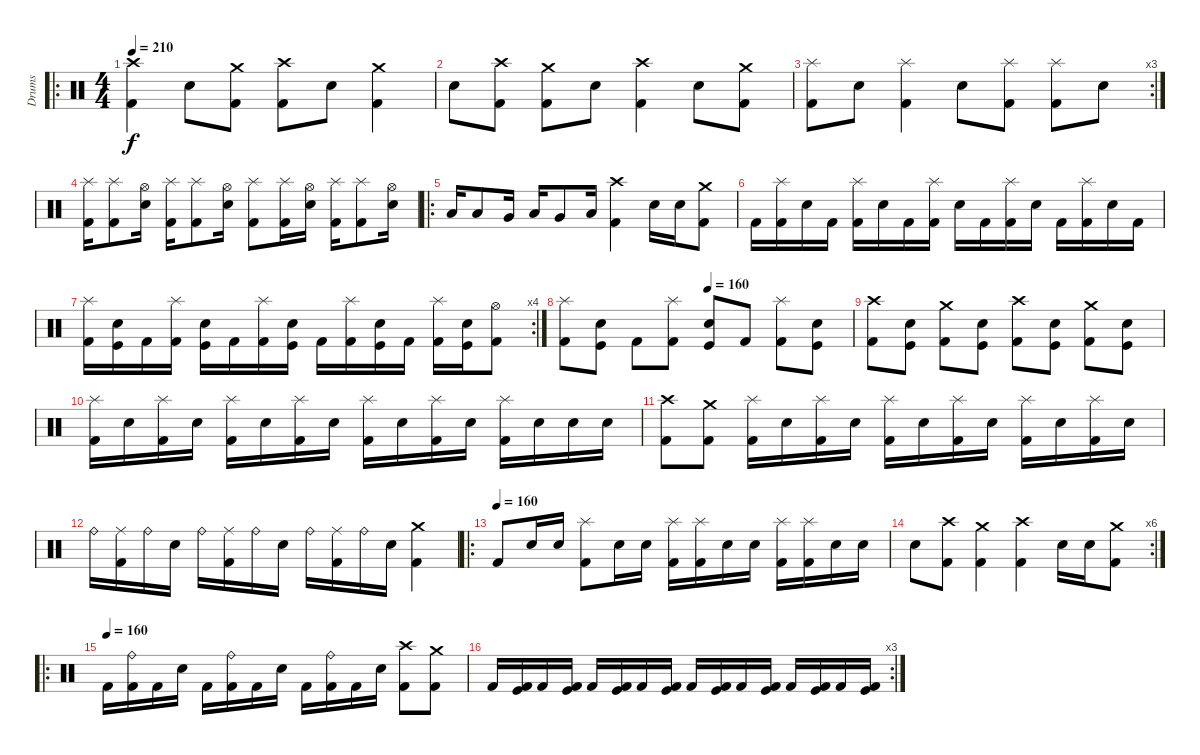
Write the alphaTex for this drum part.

\track ("Drums" "Drums") {instrument percussion}
\staff {score}
\articulation defaults
\ro
\ts (4 4)
\tempo 210
\clef neutral
\ks c
("Crash high (hit)" "Kick (hit) 2").4{dy f} "Electric Snare (hit)".8 ("Crash medium (hit)" "Kick (hit) 2").8 ("Crash high (hit)" "Kick (hit) 2").8 "Electric Snare (hit)".8 ("Crash medium (hit)" "Kick (hit) 2").4 |
"Electric Snare (hit)".8 ("Crash high (hit)" "Kick (hit) 2").8 ("Crash medium (hit)" "Kick (hit) 2").8 "Electric Snare (hit)".8 ("Crash high (hit)" "Kick (hit) 2").4 "Electric Snare (hit)".8 ("Crash medium (hit)" "Kick (hit) 2").8 |
\rc 3
("Splash (hit)" "Kick (hit) 2").8 "Electric Snare (hit)".8 ("Splash (hit)" "Kick (hit) 2").4 "Electric Snare (hit)".8 ("Splash (hit)" "Kick (hit) 2").8 ("Splash (hit)" "Kick (hit) 2").8 "Electric Snare (hit)".8 |
("Splash (hit)" "Kick (hit) 2").16 ("Splash (hit)" "Kick (hit) 2").8 ("Hi-Hat (open)" "Electric Snare (hit)").16 ("Splash (hit)" "Kick (hit) 2").16 ("Splash (hit)" "Kick (hit) 2").8 ("Hi-Hat (open)" "Electric Snare (hit)").16 ("Splash (hit)" "Kick (hit) 2").8 ("Splash (hit)" "Kick (hit) 2").16 ("Hi-Hat (open)" "Electric Snare (hit)").16 ("Splash (hit)" "Kick (hit) 2").16 ("Splash (hit)" "Kick (hit) 2").8 ("Hi-Hat (open)" "Electric Snare (hit)").16 |
\ro "Low Tom (hit)".16 "Low Tom (hit)".8 "Very Low Tom (hit)".16 "Low Tom (hit)".16 "Very Low Tom (hit)".8 "Low Floor Tom (hit)".16
("Crash high (hit)" "Kick (hit) 2").4 "Electric Snare (hit)".16 "Electric Snare (hit)".16 ("Crash medium (hit)" "Kick (hit) 2").8 |
"Kick (hit) 2".16 ("Splash (hit)" "Kick (hit) 2").16 "Electric Snare (hit)".16 "Kick (hit) 2".16 ("Splash (hit)" "Kick (hit) 2").16 "Electric Snare (hit)".16 "Kick (hit) 2".16 ("Splash (hit)" "Kick (hit) 2").16 "Electric Snare (hit)".16 "Kick (hit) 2".16 ("Splash (hit)" "Kick (hit) 2").16 "Electric Snare (hit)".16 "Kick (hit) 2".16 ("Splash (hit)" "Kick (hit) 2").16 "Electric Snare (hit)".16 "Kick (hit) 2".16 |
\rc 4
("Splash (hit)" "Kick (hit) 2").16 ("Electric Snare (hit)" "Kick (hit)").16 "Kick (hit) 2".16 ("Splash (hit)" "Kick (hit) 2").16 ("Electric Snare (hit)" "Kick (hit)").16 "Kick (hit) 2".16 ("Splash (hit)" "Kick (hit) 2").16 ("Electric Snare (hit)" "Kick (hit)").16 "Kick (hit) 2".16 ("Splash (hit)" "Kick (hit) 2").16 ("Electric Snare (hit)" "Kick (hit)").16 "Kick (hit) 2".16 ("Splash (hit)" "Kick (hit) 2").16 ("Electric Snare (hit)" "Kick (hit)").16 ("Hi-Hat (open)" "Kick (hit) 2").8 |
\tempo (160 0.5)
("Splash (hit)" "Kick (hit) 2").8 ("Electric Snare (hit)" "Kick (hit)").8 "Kick (hit) 2".8 ("Splash (hit)" "Kick (hit) 2").8 ("Electric Snare (hit)" "Kick (hit)").8 "Kick (hit) 2".8 ("Splash (hit)" "Kick (hit) 2").8 ("Electric Snare (hit)" "Kick (hit)").8 |
("Crash high (hit)" "Kick (hit) 2").8 ("Electric Snare (hit)" "Kick (hit)").8 ("Crash medium (hit)" "Kick (hit) 2").8 ("Electric Snare (hit)" "Kick (hit)").8 ("Crash high (hit)" "Kick (hit) 2").8 ("Electric Snare (hit)" "Kick (hit)").8 ("Crash medium (hit)" "Kick (hit) 2").8 ("Electric Snare (hit)" "Kick (hit)").8 |
("Splash (hit)" "Kick (hit) 2").16 "Electric Snare (hit)".16 ("Splash (hit)" "Kick (hit) 2").16 "Electric Snare (hit)".16 ("Splash (hit)" "Kick (hit) 2").16 "Electric Snare (hit)".16 ("Splash (hit)" "Kick (hit) 2").16 "Electric Snare (hit)".16 ("Splash (hit)" "Kick (hit) 2").16 "Electric Snare (hit)".16 ("Splash (hit)" "Kick (hit) 2").16 "Electric Snare (hit)".16 ("Splash (hit)" "Kick (hit) 2").16 "Electric Snare (hit)".16 "Electric Snare (hit)".16 "Electric Snare (hit)".16 |
("Crash high (hit)" "Kick (hit) 2").8 ("Crash medium (hit)" "Kick (hit) 2").8 ("Splash (hit)" "Kick (hit) 2").16 "Electric Snare (hit)".16 ("Splash (hit)" "Kick (hit) 2").16 "Electric Snare (hit)".16 ("Splash (hit)" "Kick (hit) 2").16 "Electric Snare (hit)".16 ("Splash (hit)" "Kick (hit) 2").16 "Electric Snare (hit)".16 ("Splash (hit)" "Kick (hit) 2").16 "Electric Snare (hit)".16 ("Splash (hit)" "Kick (hit) 2").16 "Electric Snare (hit)".16 |
"Ride (bell)".16 ("Ride (middle)" "Kick (hit) 2").16 "Ride (bell)".16 "Electric Snare (hit)".16 "Ride (bell)".16 ("Ride (middle)" "Kick (hit) 2").16 "Ride (bell)".16 "Electric Snare (hit)".16 "Ride (bell)".16 ("Ride (middle)" "Kick (hit) 2").16 "Ride (bell)".16 "Electric Snare (hit)".16 ("Crash medium (hit)" "Kick (hit) 2").4 |
\ro
\tempo (160)
"Kick (hit) 2".8 "Electric Snare (hit)".16 "Electric Snare (hit)".16 ("Splash (hit)" "Kick (hit) 2").8 "Electric Snare (hit)".16 "Electric Snare (hit)".16 ("Splash (hit)" "Kick (hit) 2").16 ("Splash (hit)" "Kick (hit) 2").16 "Electric Snare (hit)".16 "Electric Snare (hit)".16 ("Splash (hit)" "Kick (hit) 2").16 ("Splash (hit)" "Kick (hit) 2").16 "Electric Snare (hit)".16 "Electric Snare (hit)".16 |
\rc 6 "Electric Snare (hit)".8
("Crash high (hit)" "Kick (hit) 2").8 ("Crash medium (hit)" "Kick (hit) 2").4 ("Crash high (hit)" "Kick (hit) 2").4 "Electric Snare (hit)".16 "Electric Snare (hit)".16 ("Crash medium (hit)" "Kick (hit) 2").8 |
\ro
\tempo (160)
"Kick (hit) 2".16 ("Ride (bell)" "Kick (hit) 2").16 "Kick (hit) 2".16 "Electric Snare (hit)".16 "Kick (hit) 2".16 ("Ride (bell)" "Kick (hit) 2").16 "Kick (hit) 2".16 "Electric Snare (hit)".16 "Kick (hit) 2".16 ("Ride (bell)" "Kick (hit) 2").16 "Kick (hit) 2".16 "Electric Snare (hit)".16 ("Crash high (hit)" "Kick (hit) 2").8 ("Crash medium (hit)" "Kick (hit) 2").8 |
\rc 3 "Kick (hit) 2".16{volume 15}
("Kick (hit)" "Kick (hit) 2").16 "Kick (hit) 2".16 ("Kick (hit)" "Kick (hit) 2").16 "Kick (hit) 2".16 ("Kick (hit)" "Kick (hit) 2").16 "Kick (hit) 2".16 ("Kick (hit)" "Kick (hit) 2").16 "Kick (hit) 2".16 ("Kick (hit)" "Kick (hit) 2").16 "Kick (hit) 2".16 ("Kick (hit)" "Kick (hit) 2").16 "Kick (hit) 2".16 ("Kick (hit)" "Kick (hit) 2").16 "Kick (hit) 2".16 ("Kick (hit)" "Kick (hit) 2").16
